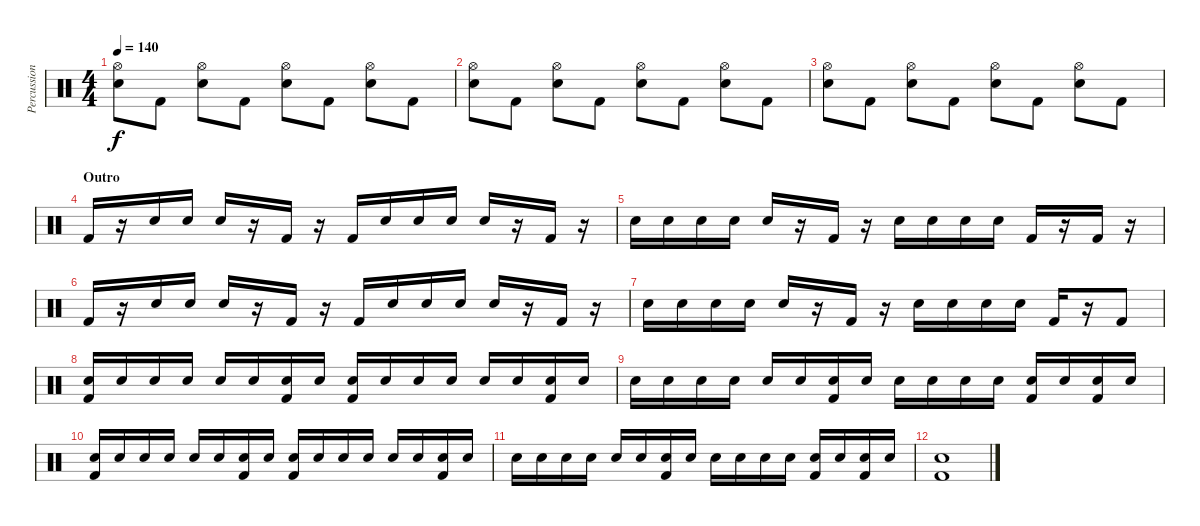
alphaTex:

\track ("Percussion" "Percussion") {instrument percussion}
\staff {score}
\articulation defaults
\ts (4 4)
\tempo 140
\clef neutral
\ks c
("Hi-Hat (open)" "Electric Snare (hit)").8{dy f} "Kick (hit) 2".8 ("Hi-Hat (open)" "Electric Snare (hit)").8 "Kick (hit) 2".8 ("Hi-Hat (open)" "Electric Snare (hit)").8 "Kick (hit) 2".8 ("Hi-Hat (open)" "Electric Snare (hit)").8 "Kick (hit) 2".8 |
("Hi-Hat (open)" "Electric Snare (hit)").8 "Kick (hit) 2".8 ("Hi-Hat (open)" "Electric Snare (hit)").8 "Kick (hit) 2".8 ("Hi-Hat (open)" "Electric Snare (hit)").8 "Kick (hit) 2".8 ("Hi-Hat (open)" "Electric Snare (hit)").8 "Kick (hit) 2".8 |
("Hi-Hat (open)" "Electric Snare (hit)").8 "Kick (hit) 2".8 ("Hi-Hat (open)" "Electric Snare (hit)").8 "Kick (hit) 2".8 ("Hi-Hat (open)" "Electric Snare (hit)").8 "Kick (hit) 2".8 ("Hi-Hat (open)" "Electric Snare (hit)").8 "Kick (hit) 2".8 |
\section ("" "Outro")
"Kick (hit) 2".16 r.16 "Electric Snare (hit)".16 "Electric Snare (hit)".16 "Electric Snare (hit)".16 r.16 "Kick (hit) 2".16 r.16 "Kick (hit) 2".16 "Electric Snare (hit)".16 "Electric Snare (hit)".16 "Electric Snare (hit)".16 "Electric Snare (hit)".16 r.16 "Kick (hit) 2".16 r.16 |
"Electric Snare (hit)".16 "Electric Snare (hit)".16 "Electric Snare (hit)".16 "Electric Snare (hit)".16 "Electric Snare (hit)".16 r.16 "Kick (hit) 2".16 r.16 "Electric Snare (hit)".16 "Electric Snare (hit)".16 "Electric Snare (hit)".16 "Electric Snare (hit)".16 "Kick (hit) 2".16 r.16 "Kick (hit) 2".16 r.16 |
"Kick (hit) 2".16 r.16 "Electric Snare (hit)".16 "Electric Snare (hit)".16 "Electric Snare (hit)".16 r.16 "Kick (hit) 2".16 r.16 "Kick (hit) 2".16 "Electric Snare (hit)".16 "Electric Snare (hit)".16 "Electric Snare (hit)".16 "Electric Snare (hit)".16 r.16 "Kick (hit) 2".16 r.16 |
"Electric Snare (hit)".16 "Electric Snare (hit)".16 "Electric Snare (hit)".16 "Electric Snare (hit)".16 "Electric Snare (hit)".16 r.16 "Kick (hit) 2".16 r.16 "Electric Snare (hit)".16 "Electric Snare (hit)".16 "Electric Snare (hit)".16 "Electric Snare (hit)".16 "Kick (hit) 2".16 r.16 "Kick (hit) 2".8 |
("Electric Snare (hit)" "Kick (hit) 2").16 "Electric Snare (hit)".16 "Electric Snare (hit)".16 "Electric Snare (hit)".16 "Electric Snare (hit)".16 "Electric Snare (hit)".16 ("Electric Snare (hit)" "Kick (hit) 2").16 "Electric Snare (hit)".16 ("Electric Snare (hit)" "Kick (hit) 2").16 "Electric Snare (hit)".16 "Electric Snare (hit)".16 "Electric Snare (hit)".16 "Electric Snare (hit)".16 "Electric Snare (hit)".16 ("Electric Snare (hit)" "Kick (hit) 2").16 "Electric Snare (hit)".16 |
"Electric Snare (hit)".16 "Electric Snare (hit)".16 "Electric Snare (hit)".16 "Electric Snare (hit)".16 "Electric Snare (hit)".16 "Electric Snare (hit)".16 ("Electric Snare (hit)" "Kick (hit) 2").16 "Electric Snare (hit)".16 "Electric Snare (hit)".16 "Electric Snare (hit)".16 "Electric Snare (hit)".16 "Electric Snare (hit)".16 ("Electric Snare (hit)" "Kick (hit) 2").16 "Electric Snare (hit)".16 ("Electric Snare (hit)" "Kick (hit) 2").16 "Electric Snare (hit)".16 |
("Electric Snare (hit)" "Kick (hit) 2").16 "Electric Snare (hit)".16 "Electric Snare (hit)".16 "Electric Snare (hit)".16 "Electric Snare (hit)".16 "Electric Snare (hit)".16 ("Electric Snare (hit)" "Kick (hit) 2").16 "Electric Snare (hit)".16 ("Electric Snare (hit)" "Kick (hit) 2").16 "Electric Snare (hit)".16 "Electric Snare (hit)".16 "Electric Snare (hit)".16 "Electric Snare (hit)".16 "Electric Snare (hit)".16 ("Electric Snare (hit)" "Kick (hit) 2").16 "Electric Snare (hit)".16 |
"Electric Snare (hit)".16 "Electric Snare (hit)".16 "Electric Snare (hit)".16 "Electric Snare (hit)".16 "Electric Snare (hit)".16 "Electric Snare (hit)".16 ("Electric Snare (hit)" "Kick (hit) 2").16 "Electric Snare (hit)".16 "Electric Snare (hit)".16 "Electric Snare (hit)".16 "Electric Snare (hit)".16 "Electric Snare (hit)".16 ("Electric Snare (hit)" "Kick (hit) 2").16 "Electric Snare (hit)".16 ("Electric Snare (hit)" "Kick (hit) 2").16 "Electric Snare (hit)".16 |
("Electric Snare (hit)" "Kick (hit) 2").1
